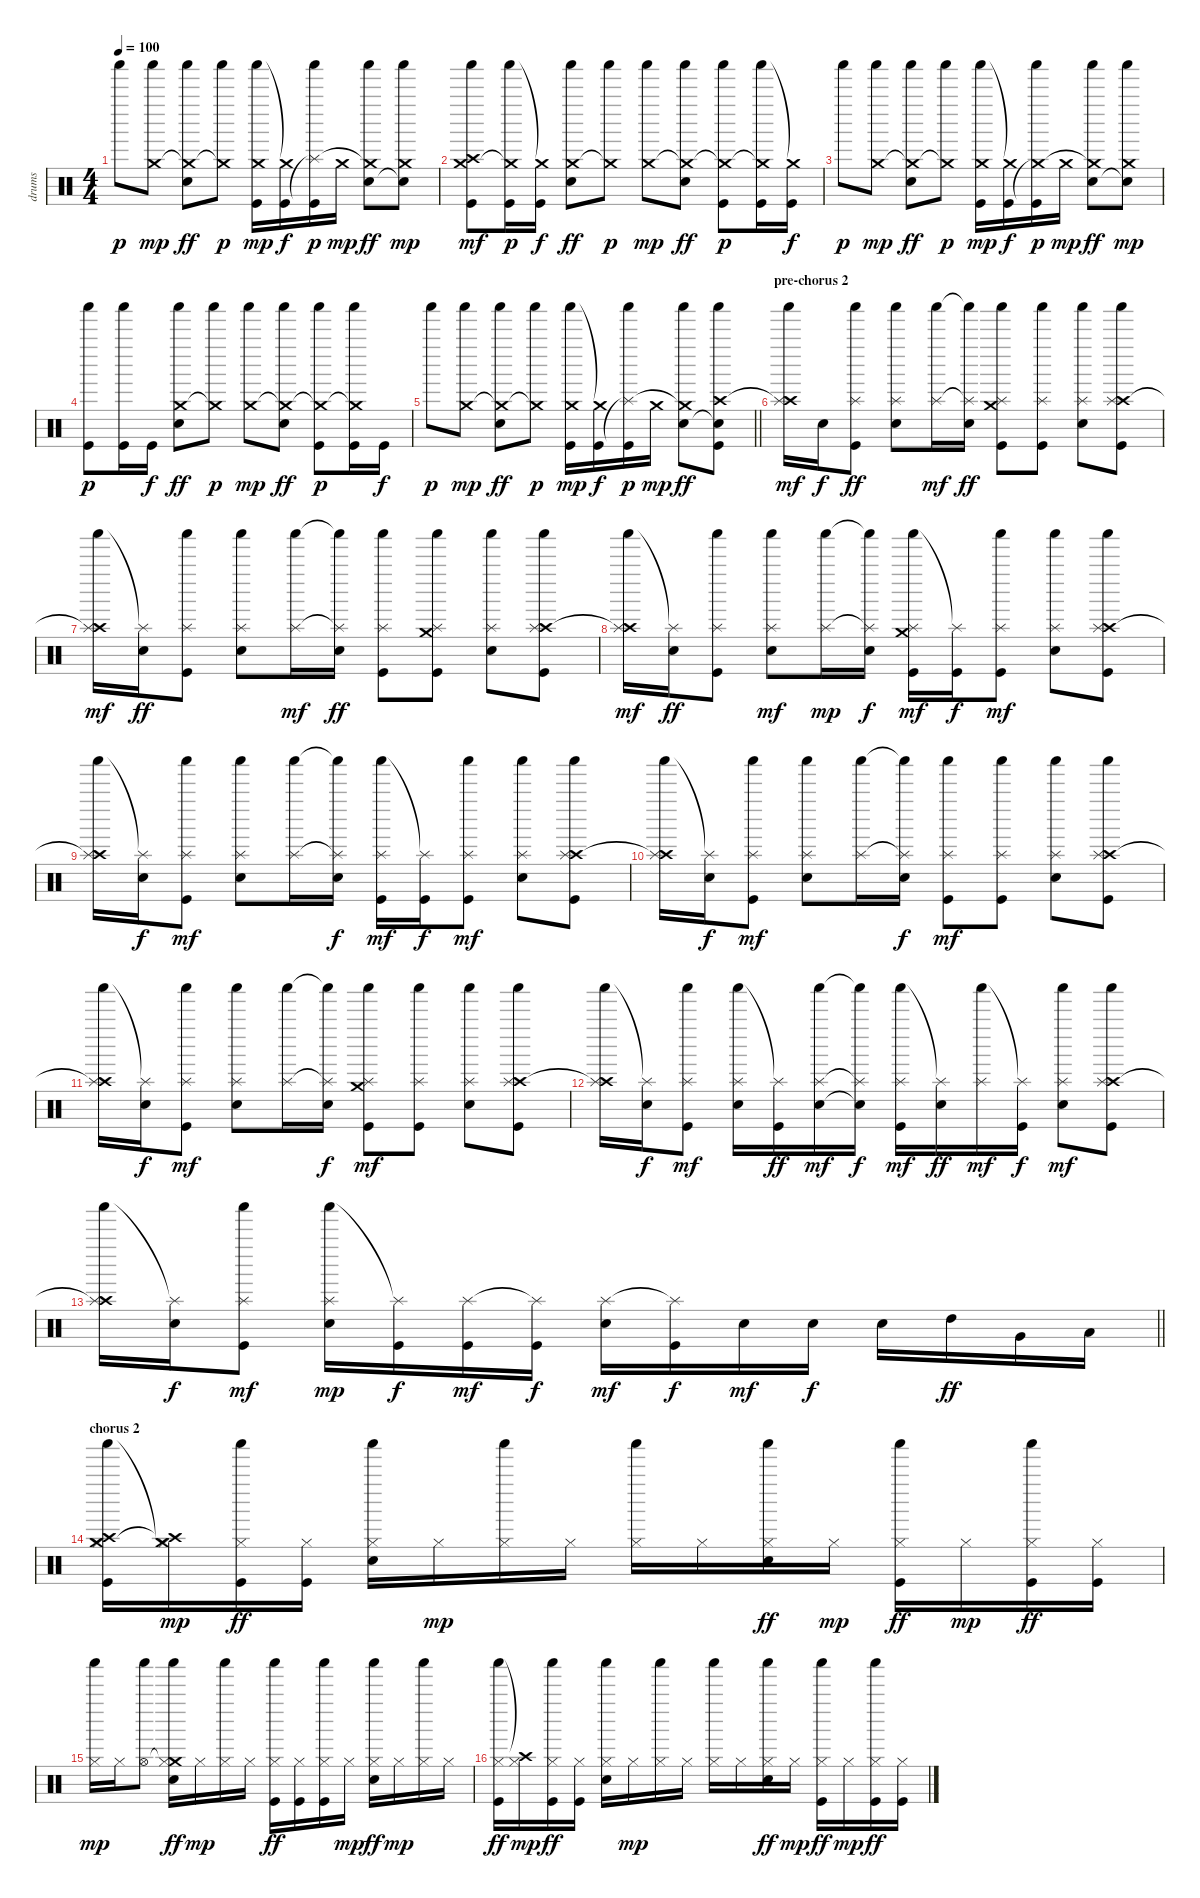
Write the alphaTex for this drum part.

\track ("drums" "drums") {instrument percussion}
\staff {score}
\articulation defaults
\ts (4 4)
\tempo 100
\clef neutral
\ks c "Shaker (hit)".8{dy p}
("Shaker (hit)" "Crash medium (hit)").8{dy mp} ("Shaker (hit)" "Crash medium (hit)"{t} "Electric Snare (hit)").8{dy ff} ("Shaker (hit)" "Crash medium (hit)"{t}).8{dy p} ("Shaker (hit)" "Crash medium (hit)" "Kick (hit)").16{dy mp} ("Crash medium (hit)"{t} "Kick (hit)").16{dy f} ("Shaker (hit)" "Splash (hit)"{t} "Kick (hit)").16{dy p} "Crash medium (hit)".16{dy mp} ("Shaker (hit)" "Crash medium (hit)"{t} "Electric Snare (hit)").8{dy ff} ("Shaker (hit)" "Crash medium (hit)" "Electric Snare (hit)"{t}).8{dy mp} |
("Shaker (hit)" "Crash medium (hit)" "Crash high (hit)" "Kick (hit)").8{dy mf} ("Shaker (hit)" "Crash medium (hit)"{t} "Kick (hit)").16{dy p} ("Crash medium (hit)"{t} "Kick (hit)").16{dy f} ("Shaker (hit)" "Crash medium (hit)" "Electric Snare (hit)").8{dy ff} ("Shaker (hit)" "Crash medium (hit)"{t}).8{dy p} ("Shaker (hit)" "Crash medium (hit)").8{dy mp} ("Shaker (hit)" "Crash medium (hit)"{t} "Electric Snare (hit)").8{dy ff} ("Shaker (hit)" "Crash medium (hit)"{t} "Kick (hit)").8{dy p} ("Shaker (hit)" "Crash medium (hit)"{t} "Kick (hit)").16 ("Crash medium (hit)"{t} "Kick (hit)").16{dy f} |
"Shaker (hit)".8{dy p} ("Shaker (hit)" "Crash medium (hit)").8{dy mp} ("Shaker (hit)" "Crash medium (hit)"{t} "Electric Snare (hit)").8{dy ff} ("Shaker (hit)" "Crash medium (hit)"{t}).8{dy p} ("Shaker (hit)" "Crash medium (hit)" "Kick (hit)").16{dy mp} ("Crash medium (hit)"{t} "Kick (hit)").16{dy f} ("Shaker (hit)" "Crash medium (hit)"{t} "Kick (hit)").16{dy p} "Crash medium (hit)".16{dy mp} ("Shaker (hit)" "Crash medium (hit)"{t} "Electric Snare (hit)").8{dy ff} ("Shaker (hit)" "Crash medium (hit)" "Electric Snare (hit)"{t}).8{dy mp} |
("Shaker (hit)" "Kick (hit)").8{dy p} ("Shaker (hit)" "Kick (hit)").16 "Kick (hit)".16{dy f} ("Shaker (hit)" "Crash medium (hit)" "Electric Snare (hit)").8{dy ff} ("Shaker (hit)" "Crash medium (hit)"{t}).8{dy p} ("Shaker (hit)" "Crash medium (hit)").8{dy mp} ("Shaker (hit)" "Crash medium (hit)"{t} "Electric Snare (hit)").8{dy ff} ("Shaker (hit)" "Crash medium (hit)"{t} "Kick (hit)").8{dy p} ("Shaker (hit)" "Crash medium (hit)"{t} "Kick (hit)").16 "Kick (hit)".16{dy f} |
\barLineRight lightlight "Shaker (hit)".8{dy p}
("Shaker (hit)" "Crash medium (hit)").8{dy mp} ("Shaker (hit)" "Crash medium (hit)"{t} "Electric Snare (hit)").8{dy ff} ("Shaker (hit)" "Crash medium (hit)"{t}).8{dy p} ("Shaker (hit)" "Crash medium (hit)" "Kick (hit)").16{dy mp} ("Crash medium (hit)"{t} "Kick (hit)").16{dy f} ("Shaker (hit)" "Splash (hit)"{t} "Kick (hit)").16{dy p} "Crash medium (hit)".16{dy mp} ("Shaker (hit)" "Crash medium (hit)"{t} "Electric Snare (hit)").8{dy ff} ("Shaker (hit)" "Crash high (hit)" "Electric Snare (hit)"{t} "Kick (hit)").8 |
\section ("" "pre-chorus 2")
("Shaker (hit)" "Crash high (hit)"{t} "Splash (hit)").16{dy mf} "Electric Snare (hit)".16{dy f} ("Shaker (hit)" "Splash (hit)" "Kick (hit)").8{dy ff} ("Shaker (hit)" "Splash (hit)" "Electric Snare (hit)").8 ("Shaker (hit)" "Splash (hit)").16{dy mf} ("Shaker (hit)"{t} "Splash (hit)"{t} "Electric Snare (hit)").16{dy ff} ("Shaker (hit)" "Crash medium (hit)" "Splash (hit)" "Kick (hit)").8 ("Shaker (hit)" "Splash (hit)" "Kick (hit)").8 ("Shaker (hit)" "Splash (hit)" "Electric Snare (hit)").8 ("Shaker (hit)" "Crash high (hit)" "Splash (hit)" "Kick (hit)").8 |
("Shaker (hit)" "Crash high (hit)"{t} "Splash (hit)").16{dy mf} ("Splash (hit)"{t} "Electric Snare (hit)").16{dy ff} ("Shaker (hit)" "Splash (hit)" "Kick (hit)").8 ("Shaker (hit)" "Splash (hit)" "Electric Snare (hit)").8 ("Shaker (hit)" "Splash (hit)").16{dy mf} ("Shaker (hit)"{t} "Splash (hit)"{t} "Electric Snare (hit)").16{dy ff} ("Shaker (hit)" "Splash (hit)" "Kick (hit)").8 ("Shaker (hit)" "Crash medium (hit)" "Splash (hit)" "Kick (hit)").8 ("Shaker (hit)" "Splash (hit)" "Electric Snare (hit)").8 ("Shaker (hit)" "Crash high (hit)" "Splash (hit)" "Kick (hit)").8 |
("Shaker (hit)" "Crash high (hit)"{t} "Splash (hit)").16{dy mf} ("Splash (hit)"{t} "Electric Snare (hit)").16{dy ff} ("Shaker (hit)" "Splash (hit)" "Kick (hit)").8 ("Shaker (hit)" "Splash (hit)" "Electric Snare (hit)").8{dy mf} ("Shaker (hit)" "Splash (hit)").16{dy mp} ("Shaker (hit)"{t} "Splash (hit)"{t} "Electric Snare (hit)").16{dy f} ("Shaker (hit)" "Crash medium (hit)" "Splash (hit)" "Kick (hit)").16{dy mf} ("Splash (hit)"{t} "Kick (hit)").16{dy f} ("Shaker (hit)" "Splash (hit)" "Kick (hit)").8{dy mf} ("Shaker (hit)" "Splash (hit)" "Electric Snare (hit)").8 ("Shaker (hit)" "Crash high (hit)" "Splash (hit)" "Kick (hit)").8 |
("Shaker (hit)" "Crash high (hit)"{t} "Splash (hit)").16 ("Splash (hit)"{t} "Electric Snare (hit)").16{dy f} ("Shaker (hit)" "Splash (hit)" "Kick (hit)").8{dy mf} ("Shaker (hit)" "Splash (hit)" "Electric Snare (hit)").8 ("Shaker (hit)" "Splash (hit)").16 ("Shaker (hit)"{t} "Splash (hit)"{t} "Electric Snare (hit)").16{dy f} ("Shaker (hit)" "Splash (hit)" "Kick (hit)").16{dy mf} ("Splash (hit)"{t} "Kick (hit)").16{dy f} ("Shaker (hit)" "Splash (hit)" "Kick (hit)").8{dy mf} ("Shaker (hit)" "Splash (hit)" "Electric Snare (hit)").8 ("Shaker (hit)" "Crash high (hit)" "Splash (hit)" "Kick (hit)").8 |
("Shaker (hit)" "Crash high (hit)"{t} "Splash (hit)").16 ("Splash (hit)"{t} "Electric Snare (hit)").16{dy f} ("Shaker (hit)" "Splash (hit)" "Kick (hit)").8{dy mf} ("Shaker (hit)" "Splash (hit)" "Electric Snare (hit)").8 ("Shaker (hit)" "Splash (hit)").16 ("Shaker (hit)"{t} "Splash (hit)"{t} "Electric Snare (hit)").16{dy f} ("Shaker (hit)" "Splash (hit)" "Kick (hit)").8{dy mf} ("Shaker (hit)" "Splash (hit)" "Kick (hit)").8 ("Shaker (hit)" "Splash (hit)" "Electric Snare (hit)").8 ("Shaker (hit)" "Crash high (hit)" "Splash (hit)" "Kick (hit)").8 |
("Shaker (hit)" "Crash high (hit)"{t} "Splash (hit)").16 ("Splash (hit)"{t} "Electric Snare (hit)").16{dy f} ("Shaker (hit)" "Splash (hit)" "Kick (hit)").8{dy mf} ("Shaker (hit)" "Splash (hit)" "Electric Snare (hit)").8 ("Shaker (hit)" "Splash (hit)").16 ("Shaker (hit)"{t} "Splash (hit)"{t} "Electric Snare (hit)").16{dy f} ("Shaker (hit)" "Crash medium (hit)" "Splash (hit)" "Kick (hit)").8{dy mf} ("Shaker (hit)" "Splash (hit)" "Kick (hit)").8 ("Shaker (hit)" "Splash (hit)" "Electric Snare (hit)").8 ("Shaker (hit)" "Crash high (hit)" "Splash (hit)" "Kick (hit)").8 |
("Shaker (hit)" "Crash high (hit)"{t} "Splash (hit)").16 ("Splash (hit)"{t} "Electric Snare (hit)").16{dy f} ("Shaker (hit)" "Splash (hit)" "Kick (hit)").8{dy mf} ("Shaker (hit)" "Splash (hit)" "Electric Snare (hit)").16 ("Splash (hit)"{t} "Kick (hit)").16{dy ff} ("Shaker (hit)" "Splash (hit)" "Electric Snare (hit)").16{dy mf} ("Shaker (hit)"{t} "Splash (hit)"{t} "Electric Snare (hit)"{t}).16{dy f} ("Shaker (hit)" "Splash (hit)" "Kick (hit)").16{dy mf} ("Splash (hit)"{t} "Electric Snare (hit)").16{dy ff} ("Shaker (hit)" "Splash (hit)").16{dy mf} ("Splash (hit)"{t} "Kick (hit)").16{dy f} ("Shaker (hit)" "Splash (hit)" "Electric Snare (hit)").8{dy mf} ("Shaker (hit)" "Crash high (hit)" "Splash (hit)" "Kick (hit)").8 |
\barLineRight lightlight
("Shaker (hit)" "Crash high (hit)"{t} "Splash (hit)").16 ("Splash (hit)"{t} "Electric Snare (hit)").16{dy f} ("Shaker (hit)" "Splash (hit)" "Kick (hit)").8{dy mf} ("Shaker (hit)" "Splash (hit)" "Electric Snare (hit)").16{dy mp} ("Splash (hit)"{t} "Kick (hit)").16{dy f} ("Splash (hit)" "Kick (hit)").16{dy mf} ("Splash (hit)"{t} "Kick (hit)").16{dy f} ("Splash (hit)" "Electric Snare (hit)").16{dy mf} ("Splash (hit)"{t} "Kick (hit)").16{dy f} "Electric Snare (hit)".16{dy mf} "Electric Snare (hit)".16{dy f} "Electric Snare (hit)".16 "High Tom (hit)".16{dy ff} "Very Low Tom (hit)".16 "Low Floor Tom (hit)".16 |
\section ("" "chorus 2")
("Shaker (hit)" "Crash medium (hit)" "Crash high (hit)" "Hi-Hat (closed)" "Kick (hit)").16 ("Crash medium (hit)"{t} "Crash high (hit)"{t} "Hi-Hat (closed)").16{dy mp} ("Shaker (hit)" "Hi-Hat (closed)" "Kick (hit)").16{dy ff} ("Hi-Hat (closed)" "Kick (hit)").16 ("Shaker (hit)" "Hi-Hat (closed)" "Electric Snare (hit)").16 "Hi-Hat (closed)".16{dy mp} ("Shaker (hit)" "Hi-Hat (closed)").16 "Hi-Hat (closed)".16 ("Shaker (hit)" "Hi-Hat (closed)").16 "Hi-Hat (closed)".16 ("Shaker (hit)" "Hi-Hat (closed)" "Electric Snare (hit)").16{dy ff} "Hi-Hat (closed)".16{dy mp} ("Shaker (hit)" "Hi-Hat (closed)" "Kick (hit)").16{dy ff} "Hi-Hat (closed)".16{dy mp} ("Shaker (hit)" "Hi-Hat (closed)" "Kick (hit)").16{dy ff} ("Hi-Hat (closed)" "Kick (hit)").16 |
("Shaker (hit)" "Hi-Hat (closed)").16{dy mp} "Hi-Hat (closed)".16 ("Shaker (hit)" "Hi-Hat (open)").8 ("Shaker (hit)" "Crash medium (hit)"{t} "Hi-Hat (closed)" "Electric Snare (hit)").16{dy ff} "Hi-Hat (closed)".16{dy mp} ("Shaker (hit)" "Hi-Hat (closed)").16 "Hi-Hat (closed)".16 ("Shaker (hit)" "Hi-Hat (closed)" "Kick (hit)").16{dy ff} ("Hi-Hat (closed)" "Kick (hit)").16 ("Shaker (hit)" "Hi-Hat (closed)" "Kick (hit)").16 "Hi-Hat (closed)".16{dy mp} ("Shaker (hit)" "Hi-Hat (closed)" "Electric Snare (hit)").16{dy ff} "Hi-Hat (closed)".16{dy mp} ("Shaker (hit)" "Hi-Hat (closed)").16 "Hi-Hat (closed)".16 |
("Shaker (hit)" "Hi-Hat (closed)" "Kick (hit)").16{dy ff} ("Crash high (hit)"{t} "Hi-Hat (closed)").16{dy mp} ("Shaker (hit)" "Hi-Hat (closed)" "Kick (hit)").16{dy ff} ("Hi-Hat (closed)" "Kick (hit)").16 ("Shaker (hit)" "Hi-Hat (closed)" "Electric Snare (hit)").16 "Hi-Hat (closed)".16{dy mp} ("Shaker (hit)" "Hi-Hat (closed)").16 "Hi-Hat (closed)".16 ("Shaker (hit)" "Hi-Hat (closed)").16 "Hi-Hat (closed)".16 ("Shaker (hit)" "Hi-Hat (closed)" "Electric Snare (hit)").16{dy ff} "Hi-Hat (closed)".16{dy mp} ("Shaker (hit)" "Hi-Hat (closed)" "Kick (hit)").16{dy ff} "Hi-Hat (closed)".16{dy mp} ("Shaker (hit)" "Hi-Hat (closed)" "Kick (hit)").16{dy ff} ("Hi-Hat (closed)" "Kick (hit)").16
